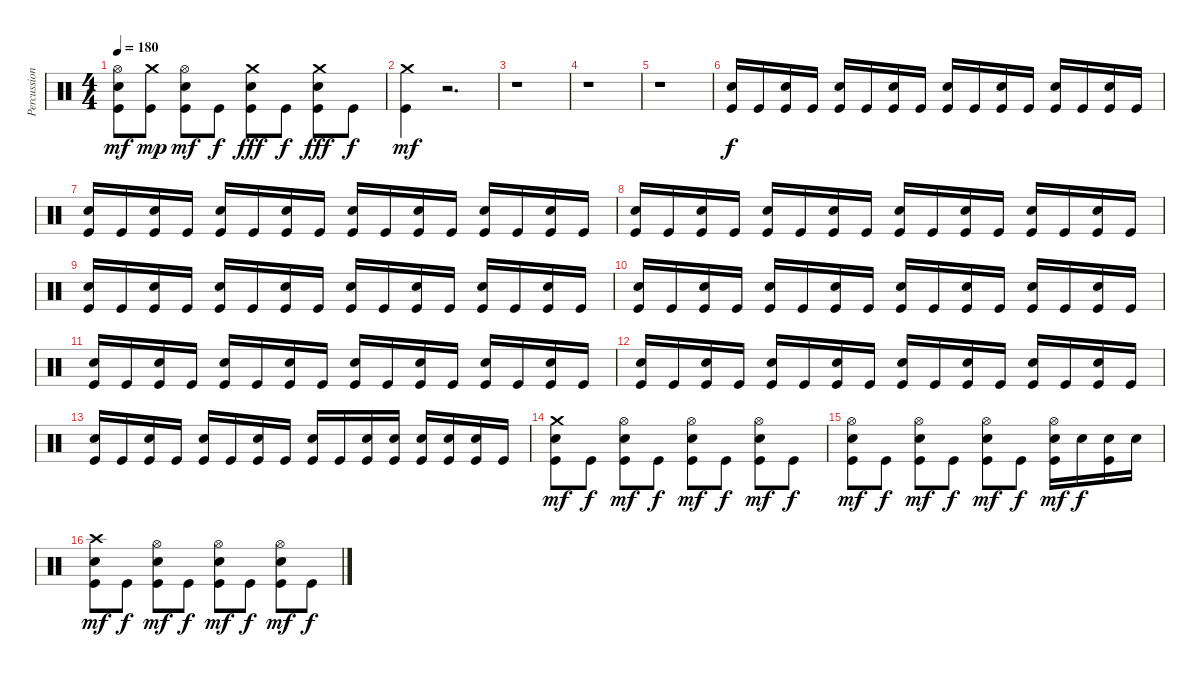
\track ("Percussion" "Percussion") {instrument percussion}
\staff {score}
\articulation defaults
\ts (4 4)
\tempo 180
\clef neutral
\ks c
("Hi-Hat (open)" "Snare (hit) 2" "Kick (hit)").8{dy mf} ("Crash medium (hit)" "Kick (hit)").8{dy mp} ("Hi-Hat (open)" "Snare (hit) 2" "Kick (hit)").8{dy mf} "Kick (hit)".8{dy f} ("Crash medium (hit)" "Snare (hit) 2" "Kick (hit)").8{dy fff} "Kick (hit)".8{dy f} ("Crash medium (hit)" "Snare (hit) 2" "Kick (hit)").8{dy fff} "Kick (hit)".8{dy f} |
("Crash medium (hit)" "Kick (hit)").4{dy mf} r.2{d} |
r.1 |
r.1 |
r.1 |
("Snare (hit) 2" "Kick (hit)").16{dy f} "Kick (hit)".16 ("Snare (hit) 2" "Kick (hit)").16 "Kick (hit)".16 ("Snare (hit) 2" "Kick (hit)").16 "Kick (hit)".16 ("Snare (hit) 2" "Kick (hit)").16 "Kick (hit)".16 ("Snare (hit) 2" "Kick (hit)").16 "Kick (hit)".16 ("Snare (hit) 2" "Kick (hit)").16 "Kick (hit)".16 ("Snare (hit) 2" "Kick (hit)").16 "Kick (hit)".16 ("Snare (hit) 2" "Kick (hit)").16 "Kick (hit)".16 |
("Snare (hit) 2" "Kick (hit)").16 "Kick (hit)".16 ("Snare (hit) 2" "Kick (hit)").16 "Kick (hit)".16 ("Snare (hit) 2" "Kick (hit)").16 "Kick (hit)".16 ("Snare (hit) 2" "Kick (hit)").16 "Kick (hit)".16 ("Snare (hit) 2" "Kick (hit)").16 "Kick (hit)".16 ("Snare (hit) 2" "Kick (hit)").16 "Kick (hit)".16 ("Snare (hit) 2" "Kick (hit)").16 "Kick (hit)".16 ("Snare (hit) 2" "Kick (hit)").16 "Kick (hit)".16 |
("Snare (hit) 2" "Kick (hit)").16 "Kick (hit)".16 ("Snare (hit) 2" "Kick (hit)").16 "Kick (hit)".16 ("Snare (hit) 2" "Kick (hit)").16 "Kick (hit)".16 ("Snare (hit) 2" "Kick (hit)").16 "Kick (hit)".16 ("Snare (hit) 2" "Kick (hit)").16 "Kick (hit)".16 ("Snare (hit) 2" "Kick (hit)").16 "Kick (hit)".16 ("Snare (hit) 2" "Kick (hit)").16 "Kick (hit)".16 ("Snare (hit) 2" "Kick (hit)").16 "Kick (hit)".16 |
("Snare (hit) 2" "Kick (hit)").16 "Kick (hit)".16 ("Snare (hit) 2" "Kick (hit)").16 "Kick (hit)".16 ("Snare (hit) 2" "Kick (hit)").16 "Kick (hit)".16 ("Snare (hit) 2" "Kick (hit)").16 "Kick (hit)".16 ("Snare (hit) 2" "Kick (hit)").16 "Kick (hit)".16 ("Snare (hit) 2" "Kick (hit)").16 "Kick (hit)".16 ("Snare (hit) 2" "Kick (hit)").16 "Kick (hit)".16 ("Snare (hit) 2" "Kick (hit)").16 "Kick (hit)".16 |
("Snare (hit) 2" "Kick (hit)").16 "Kick (hit)".16 ("Snare (hit) 2" "Kick (hit)").16 "Kick (hit)".16 ("Snare (hit) 2" "Kick (hit)").16 "Kick (hit)".16 ("Snare (hit) 2" "Kick (hit)").16 "Kick (hit)".16 ("Snare (hit) 2" "Kick (hit)").16 "Kick (hit)".16 ("Snare (hit) 2" "Kick (hit)").16 "Kick (hit)".16 ("Snare (hit) 2" "Kick (hit)").16 "Kick (hit)".16 ("Snare (hit) 2" "Kick (hit)").16 "Kick (hit)".16 |
("Snare (hit) 2" "Kick (hit)").16 "Kick (hit)".16 ("Snare (hit) 2" "Kick (hit)").16 "Kick (hit)".16 ("Snare (hit) 2" "Kick (hit)").16 "Kick (hit)".16 ("Snare (hit) 2" "Kick (hit)").16 "Kick (hit)".16 ("Snare (hit) 2" "Kick (hit)").16 "Kick (hit)".16 ("Snare (hit) 2" "Kick (hit)").16 "Kick (hit)".16 ("Snare (hit) 2" "Kick (hit)").16 "Kick (hit)".16 ("Snare (hit) 2" "Kick (hit)").16 "Kick (hit)".16 |
("Snare (hit) 2" "Kick (hit)").16 "Kick (hit)".16 ("Snare (hit) 2" "Kick (hit)").16 "Kick (hit)".16 ("Snare (hit) 2" "Kick (hit)").16 "Kick (hit)".16 ("Snare (hit) 2" "Kick (hit)").16 "Kick (hit)".16 ("Snare (hit) 2" "Kick (hit)").16 "Kick (hit)".16 ("Snare (hit) 2" "Kick (hit)").16 "Kick (hit)".16 ("Snare (hit) 2" "Kick (hit)").16 "Kick (hit)".16 ("Snare (hit) 2" "Kick (hit)").16 "Kick (hit)".16 |
("Snare (hit) 2" "Kick (hit)").16 "Kick (hit)".16 ("Snare (hit) 2" "Kick (hit)").16 "Kick (hit)".16 ("Snare (hit) 2" "Kick (hit)").16 "Kick (hit)".16 ("Snare (hit) 2" "Kick (hit)").16 "Kick (hit)".16 ("Snare (hit) 2" "Kick (hit)").16 "Kick (hit)".16 ("Snare (hit) 2" "Kick (hit)").16 ("Snare (hit) 2" "Kick (hit)").16 ("Snare (hit) 2" "Kick (hit)").16 ("Snare (hit) 2" "Kick (hit)").16 ("Snare (hit) 2" "Kick (hit)").16 "Kick (hit)".16 |
("Crash medium (hit)" "Snare (hit) 2" "Kick (hit)").8{dy mf} "Kick (hit)".8{dy f} ("Hi-Hat (open)" "Snare (hit) 2" "Kick (hit)").8{dy mf} "Kick (hit)".8{dy f} ("Hi-Hat (open)" "Snare (hit) 2" "Kick (hit)").8{dy mf} "Kick (hit)".8{dy f} ("Hi-Hat (open)" "Snare (hit) 2" "Kick (hit)").8{dy mf} "Kick (hit)".8{dy f} |
("Hi-Hat (open)" "Snare (hit) 2" "Kick (hit)").8{dy mf} "Kick (hit)".8{dy f} ("Hi-Hat (open)" "Snare (hit) 2" "Kick (hit)").8{dy mf} "Kick (hit)".8{dy f} ("Hi-Hat (open)" "Snare (hit) 2" "Kick (hit)").8{dy mf} "Kick (hit)".8{dy f} ("Hi-Hat (open)" "Snare (hit) 2" "Kick (hit)").16{dy mf} "Snare (hit) 2".16{dy f} ("Snare (hit) 2" "Kick (hit)").16 "Snare (hit) 2".16 |
("Crash high (hit)" "Snare (hit) 2" "Kick (hit)").8{dy mf} "Kick (hit)".8{dy f} ("Hi-Hat (open)" "Snare (hit) 2" "Kick (hit)").8{dy mf} "Kick (hit)".8{dy f} ("Hi-Hat (open)" "Snare (hit) 2" "Kick (hit)").8{dy mf} "Kick (hit)".8{dy f} ("Hi-Hat (open)" "Snare (hit) 2" "Kick (hit)").8{dy mf} "Kick (hit)".8{dy f}
